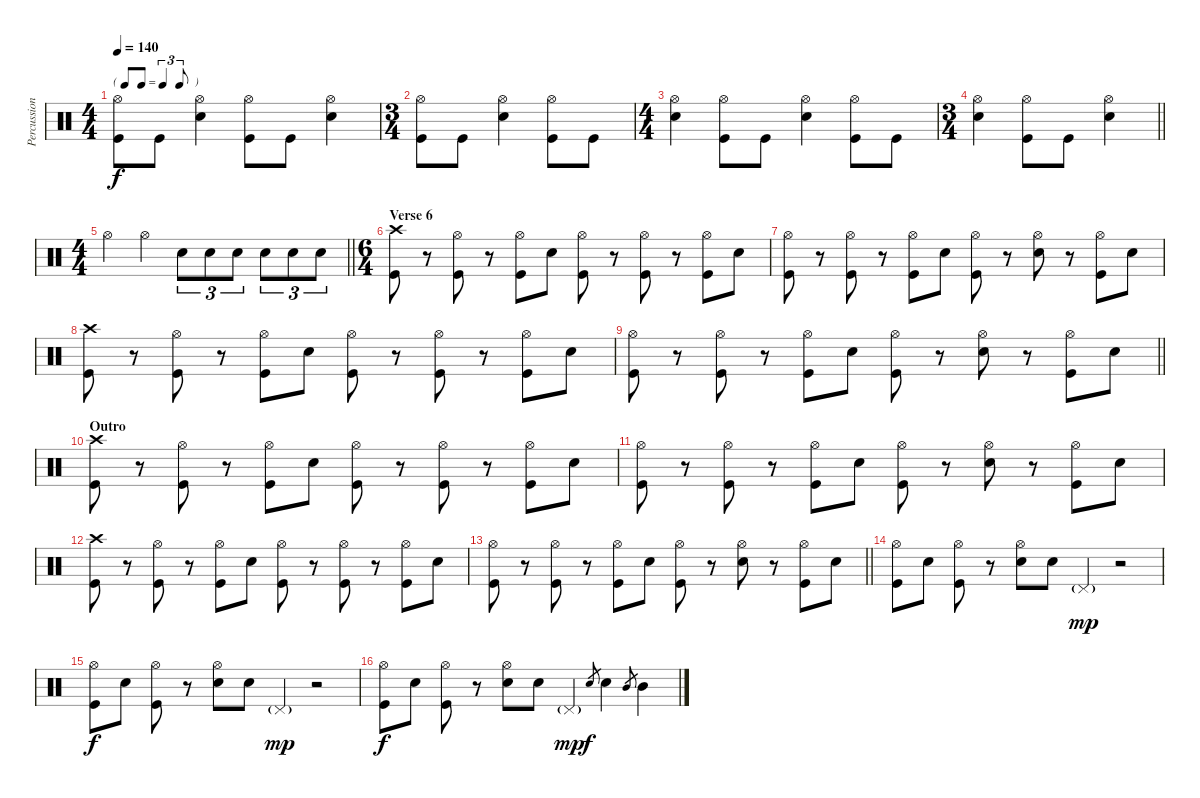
\track ("Percussion" "Percussion") {instrument percussion}
\staff {score}
\articulation defaults
\ts (4 4)
\tf triplet8th
\tempo 140
\clef neutral
\ks c
("Hi-Hat (open)" "Kick (hit)").8{dy f} "Kick (hit)".8 ("Hi-Hat (open)" "Electric Snare (hit)").4 ("Hi-Hat (open)" "Kick (hit)").8 "Kick (hit)".8 ("Hi-Hat (open)" "Electric Snare (hit)").4 |
\ts (3 4)
("Hi-Hat (open)" "Kick (hit)").8 "Kick (hit)".8 ("Hi-Hat (open)" "Electric Snare (hit)").4 ("Hi-Hat (open)" "Kick (hit)").8 "Kick (hit)".8 |
\ts (4 4)
("Hi-Hat (open)" "Electric Snare (hit)").4 ("Hi-Hat (open)" "Kick (hit)").8 "Kick (hit)".8 ("Hi-Hat (open)" "Electric Snare (hit)").4 ("Hi-Hat (open)" "Kick (hit)").8 "Kick (hit)".8 |
\ts (3 4)
\barLineRight lightlight
("Hi-Hat (open)" "Electric Snare (hit)").4 ("Hi-Hat (open)" "Kick (hit)").8 "Kick (hit)".8 ("Hi-Hat (open)" "Electric Snare (hit)").4 |
\ts (4 4)
\barLineRight lightlight "Hi-Hat (open)".4 "Hi-Hat (open)".4 "Electric Snare (hit)".8{tu (3 2)} "Electric Snare (hit)".8{tu (3 2)} "Electric Snare (hit)".8{tu (3 2)} "Electric Snare (hit)".8{tu (3 2)} "Electric Snare (hit)".8{tu (3 2)} "Electric Snare (hit)".8{tu (3 2)}
|
\ts (6 4)
\section ("" "Verse 6")
("Crash high (hit)" "Kick (hit)").8 r.8 ("Hi-Hat (open)" "Kick (hit)").8 r.8 ("Hi-Hat (open)" "Kick (hit)").8 "Electric Snare (hit)".8 ("Hi-Hat (open)" "Kick (hit)").8 r.8 ("Hi-Hat (open)" "Kick (hit)").8 r.8 ("Hi-Hat (open)" "Kick (hit)").8 "Electric Snare (hit)".8 |
("Hi-Hat (open)" "Kick (hit)").8 r.8 ("Hi-Hat (open)" "Kick (hit)").8 r.8 ("Hi-Hat (open)" "Kick (hit)").8 "Electric Snare (hit)".8 ("Hi-Hat (open)" "Kick (hit)").8 r.8 ("Hi-Hat (open)" "Electric Snare (hit)").8 r.8 ("Hi-Hat (open)" "Kick (hit)").8 "Electric Snare (hit)".8 |
("Crash high (hit)" "Kick (hit)").8 r.8 ("Hi-Hat (open)" "Kick (hit)").8 r.8 ("Hi-Hat (open)" "Kick (hit)").8 "Electric Snare (hit)".8 ("Hi-Hat (open)" "Kick (hit)").8 r.8 ("Hi-Hat (open)" "Kick (hit)").8 r.8 ("Hi-Hat (open)" "Kick (hit)").8 "Electric Snare (hit)".8 |
\barLineRight lightlight
("Hi-Hat (open)" "Kick (hit)").8 r.8 ("Hi-Hat (open)" "Kick (hit)").8 r.8 ("Hi-Hat (open)" "Kick (hit)").8 "Electric Snare (hit)".8 ("Hi-Hat (open)" "Kick (hit)").8 r.8 ("Hi-Hat (open)" "Electric Snare (hit)").8 r.8 ("Hi-Hat (open)" "Kick (hit)").8 "Electric Snare (hit)".8 |
\section ("" "Outro")
("Crash high (hit)" "Kick (hit)").8 r.8 ("Hi-Hat (open)" "Kick (hit)").8 r.8 ("Hi-Hat (open)" "Kick (hit)").8 "Electric Snare (hit)".8 ("Hi-Hat (open)" "Kick (hit)").8 r.8 ("Hi-Hat (open)" "Kick (hit)").8 r.8 ("Hi-Hat (open)" "Kick (hit)").8 "Electric Snare (hit)".8 |
("Hi-Hat (open)" "Kick (hit)").8 r.8 ("Hi-Hat (open)" "Kick (hit)").8 r.8 ("Hi-Hat (open)" "Kick (hit)").8 "Electric Snare (hit)".8 ("Hi-Hat (open)" "Kick (hit)").8 r.8 ("Hi-Hat (open)" "Electric Snare (hit)").8 r.8 ("Hi-Hat (open)" "Kick (hit)").8 "Electric Snare (hit)".8 |
("Crash high (hit)" "Kick (hit)").8 r.8 ("Hi-Hat (open)" "Kick (hit)").8 r.8 ("Hi-Hat (open)" "Kick (hit)").8 "Electric Snare (hit)".8 ("Hi-Hat (open)" "Kick (hit)").8 r.8 ("Hi-Hat (open)" "Kick (hit)").8 r.8 ("Hi-Hat (open)" "Kick (hit)").8 "Electric Snare (hit)".8 |
\barLineRight lightlight
("Hi-Hat (open)" "Kick (hit)").8 r.8 ("Hi-Hat (open)" "Kick (hit)").8 r.8 ("Hi-Hat (open)" "Kick (hit)").8 "Electric Snare (hit)".8 ("Hi-Hat (open)" "Kick (hit)").8 r.8 ("Hi-Hat (open)" "Electric Snare (hit)").8 r.8 ("Hi-Hat (open)" "Kick (hit)").8 "Electric Snare (hit)".8 |
("Hi-Hat (open)" "Kick (hit)").8 "Electric Snare (hit)".8 ("Hi-Hat (open)" "Kick (hit)").8 r.8 ("Hi-Hat (open)" "Electric Snare (hit)").8 "Electric Snare (hit)".8 "Pedal Hi-Hat (hit)"{g}.4{dy mp} r.2 |
("Hi-Hat (open)" "Kick (hit)").8{dy f} "Electric Snare (hit)".8 ("Hi-Hat (open)" "Kick (hit)").8 r.8 ("Hi-Hat (open)" "Electric Snare (hit)").8 "Electric Snare (hit)".8 "Pedal Hi-Hat (hit)"{g}.4{dy mp} r.2 |
("Hi-Hat (open)" "Kick (hit)").8{dy f} "Electric Snare (hit)".8 ("Hi-Hat (open)" "Kick (hit)").8 r.8 ("Hi-Hat (open)" "Electric Snare (hit)").8 "Electric Snare (hit)".8 "Pedal Hi-Hat (hit)"{g}.4{dy mp} "Electric Snare (hit)".8{gr dy f} "Electric Snare (hit)".4 "Mid Tom (hit)".8{gr} "Mid Tom (hit)".4
